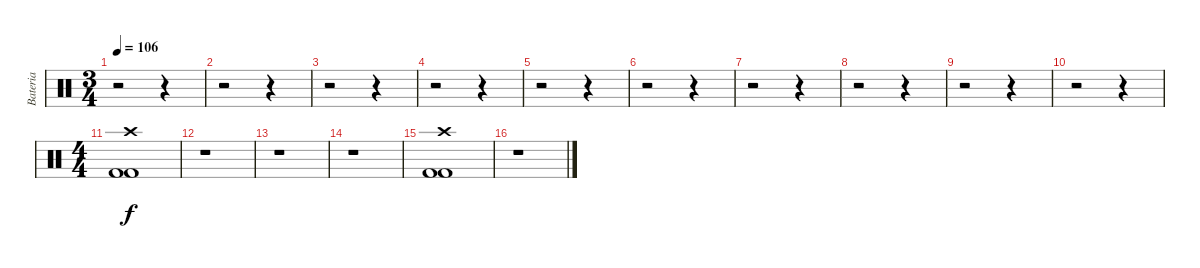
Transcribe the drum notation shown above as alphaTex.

\track ("Bateria" "Bateria") {instrument percussion}
\staff {score}
\articulation defaults
\ts (3 4)
\tempo 106
\clef neutral
\ks c
r.2{dy f} r.4 |
r.2 r.4 |
r.2 r.4 |
r.2 r.4 |
r.2 r.4 |
r.2 r.4 |
r.2 r.4 |
r.2 r.4 |
r.2 r.4 |
r.2 r.4 |
\ts (4 4)
("Kick (hit) 2" "Kick (hit) 2" "Crash high (hit)").1 |
r.1 |
r.1 |
r.1 |
("Kick (hit) 2" "Kick (hit) 2" "Crash high (hit)").1 |
r.1
